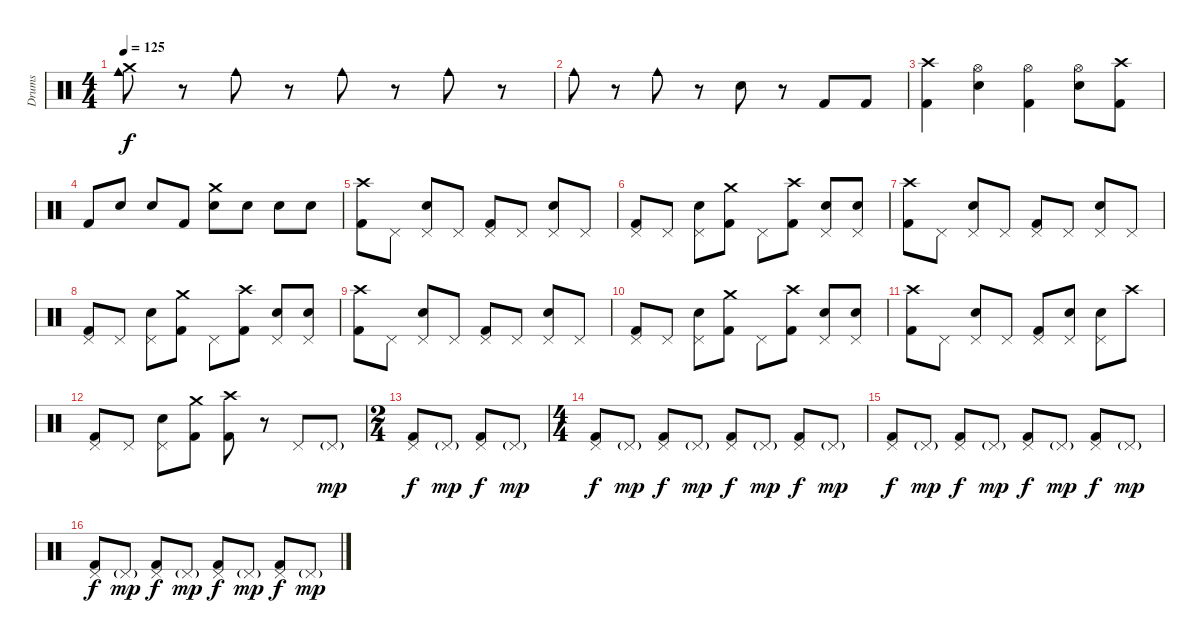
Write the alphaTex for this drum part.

\track ("Drums" "Drums") {instrument percussion}
\staff {score}
\articulation defaults
\ts (4 4)
\tempo 125
\clef neutral
\ks c
("Crash medium (hit)" "Cowbell medium (hit)").8{dy f} r.8 "Cowbell medium (hit)".8 r.8 "Cowbell medium (hit)".8 r.8 "Cowbell medium (hit)".8 r.8 |
"Cowbell medium (hit)".8 r.8 "Cowbell medium (hit)".8 r.8 "Snare (hit) 2".8 r.8 "Kick (hit) 2".8 "Kick (hit) 2".8 |
("Crash high (hit)" "Kick (hit) 2").4 ("Hi-Hat (open)" "Snare (hit) 2").4 ("Hi-Hat (open)" "Kick (hit) 2").4 ("Hi-Hat (open)" "Snare (hit) 2").8 ("Crash high (hit)" "Kick (hit) 2").8 |
"Kick (hit) 2".8 "Snare (hit) 2".8 "Snare (hit) 2".8 "Kick (hit) 2".8 ("Crash medium (hit)" "Snare (hit) 2").8 "Snare (hit) 2".8 "Snare (hit) 2".8 "Snare (hit) 2".8 |
("Crash high (hit)" "Kick (hit) 2").8 "Pedal Hi-Hat (hit)".8 ("Pedal Hi-Hat (hit)" "Snare (hit) 2").8 "Pedal Hi-Hat (hit)".8 ("Pedal Hi-Hat (hit)" "Kick (hit) 2").8 "Pedal Hi-Hat (hit)".8 ("Pedal Hi-Hat (hit)" "Snare (hit) 2").8 "Pedal Hi-Hat (hit)".8 |
("Pedal Hi-Hat (hit)" "Kick (hit) 2").8 "Pedal Hi-Hat (hit)".8 ("Pedal Hi-Hat (hit)" "Snare (hit) 2").8 ("Crash medium (hit)" "Kick (hit) 2").8 "Pedal Hi-Hat (hit)".8 ("Crash high (hit)" "Kick (hit) 2").8 ("Pedal Hi-Hat (hit)" "Snare (hit) 2").8 ("Pedal Hi-Hat (hit)" "Snare (hit) 2").8 |
("Crash high (hit)" "Kick (hit) 2").8 "Pedal Hi-Hat (hit)".8 ("Pedal Hi-Hat (hit)" "Snare (hit) 2").8 "Pedal Hi-Hat (hit)".8 ("Pedal Hi-Hat (hit)" "Kick (hit) 2").8 "Pedal Hi-Hat (hit)".8 ("Pedal Hi-Hat (hit)" "Snare (hit) 2").8 "Pedal Hi-Hat (hit)".8 |
("Pedal Hi-Hat (hit)" "Kick (hit) 2").8 "Pedal Hi-Hat (hit)".8 ("Pedal Hi-Hat (hit)" "Snare (hit) 2").8 ("Crash medium (hit)" "Kick (hit) 2").8 "Pedal Hi-Hat (hit)".8 ("Crash high (hit)" "Kick (hit) 2").8 ("Pedal Hi-Hat (hit)" "Snare (hit) 2").8 ("Pedal Hi-Hat (hit)" "Snare (hit) 2").8 |
("Crash high (hit)" "Kick (hit) 2").8 "Pedal Hi-Hat (hit)".8 ("Pedal Hi-Hat (hit)" "Snare (hit) 2").8 "Pedal Hi-Hat (hit)".8 ("Pedal Hi-Hat (hit)" "Kick (hit) 2").8 "Pedal Hi-Hat (hit)".8 ("Pedal Hi-Hat (hit)" "Snare (hit) 2").8 "Pedal Hi-Hat (hit)".8 |
("Pedal Hi-Hat (hit)" "Kick (hit) 2").8 "Pedal Hi-Hat (hit)".8 ("Pedal Hi-Hat (hit)" "Snare (hit) 2").8 ("Crash medium (hit)" "Kick (hit) 2").8 "Pedal Hi-Hat (hit)".8 ("Crash high (hit)" "Kick (hit) 2").8 ("Pedal Hi-Hat (hit)" "Snare (hit) 2").8 ("Pedal Hi-Hat (hit)" "Snare (hit) 2").8 |
("Crash high (hit)" "Kick (hit) 2").8 "Pedal Hi-Hat (hit)".8 ("Pedal Hi-Hat (hit)" "Snare (hit) 2").8 "Pedal Hi-Hat (hit)".8 ("Pedal Hi-Hat (hit)" "Kick (hit) 2").8 ("Pedal Hi-Hat (hit)" "Snare (hit) 2").8 ("Pedal Hi-Hat (hit)" "Snare (hit) 2").8 "Crash high (hit)".8 |
("Pedal Hi-Hat (hit)" "Kick (hit) 2").8 "Pedal Hi-Hat (hit)".8 ("Pedal Hi-Hat (hit)" "Snare (hit) 2").8 ("Crash medium (hit)" "Kick (hit) 2").8 ("Crash high (hit)" "Kick (hit) 2").8 r.8 "Pedal Hi-Hat (hit)".8 "Pedal Hi-Hat (hit)"{g}.8{dy mp} |
\ts (2 4)
("Pedal Hi-Hat (hit)" "Kick (hit) 2").8{dy f} "Pedal Hi-Hat (hit)"{g}.8{dy mp} ("Pedal Hi-Hat (hit)" "Kick (hit) 2").8{dy f} "Pedal Hi-Hat (hit)"{g}.8{dy mp} |
\ts (4 4)
("Pedal Hi-Hat (hit)" "Kick (hit) 2").8{dy f} "Pedal Hi-Hat (hit)"{g}.8{dy mp} ("Pedal Hi-Hat (hit)" "Kick (hit) 2").8{dy f} "Pedal Hi-Hat (hit)"{g}.8{dy mp} ("Pedal Hi-Hat (hit)" "Kick (hit) 2").8{dy f} "Pedal Hi-Hat (hit)"{g}.8{dy mp} ("Pedal Hi-Hat (hit)" "Kick (hit) 2").8{dy f} "Pedal Hi-Hat (hit)"{g}.8{dy mp} |
("Pedal Hi-Hat (hit)" "Kick (hit) 2").8{dy f} "Pedal Hi-Hat (hit)"{g}.8{dy mp} ("Pedal Hi-Hat (hit)" "Kick (hit) 2").8{dy f} "Pedal Hi-Hat (hit)"{g}.8{dy mp} ("Pedal Hi-Hat (hit)" "Kick (hit) 2").8{dy f} "Pedal Hi-Hat (hit)"{g}.8{dy mp} ("Pedal Hi-Hat (hit)" "Kick (hit) 2").8{dy f} "Pedal Hi-Hat (hit)"{g}.8{dy mp} |
("Pedal Hi-Hat (hit)" "Kick (hit) 2").8{dy f} "Pedal Hi-Hat (hit)"{g}.8{dy mp} ("Pedal Hi-Hat (hit)" "Kick (hit) 2").8{dy f} "Pedal Hi-Hat (hit)"{g}.8{dy mp} ("Pedal Hi-Hat (hit)" "Kick (hit) 2").8{dy f} "Pedal Hi-Hat (hit)"{g}.8{dy mp} ("Pedal Hi-Hat (hit)" "Kick (hit) 2").8{dy f} "Pedal Hi-Hat (hit)"{g}.8{dy mp}
